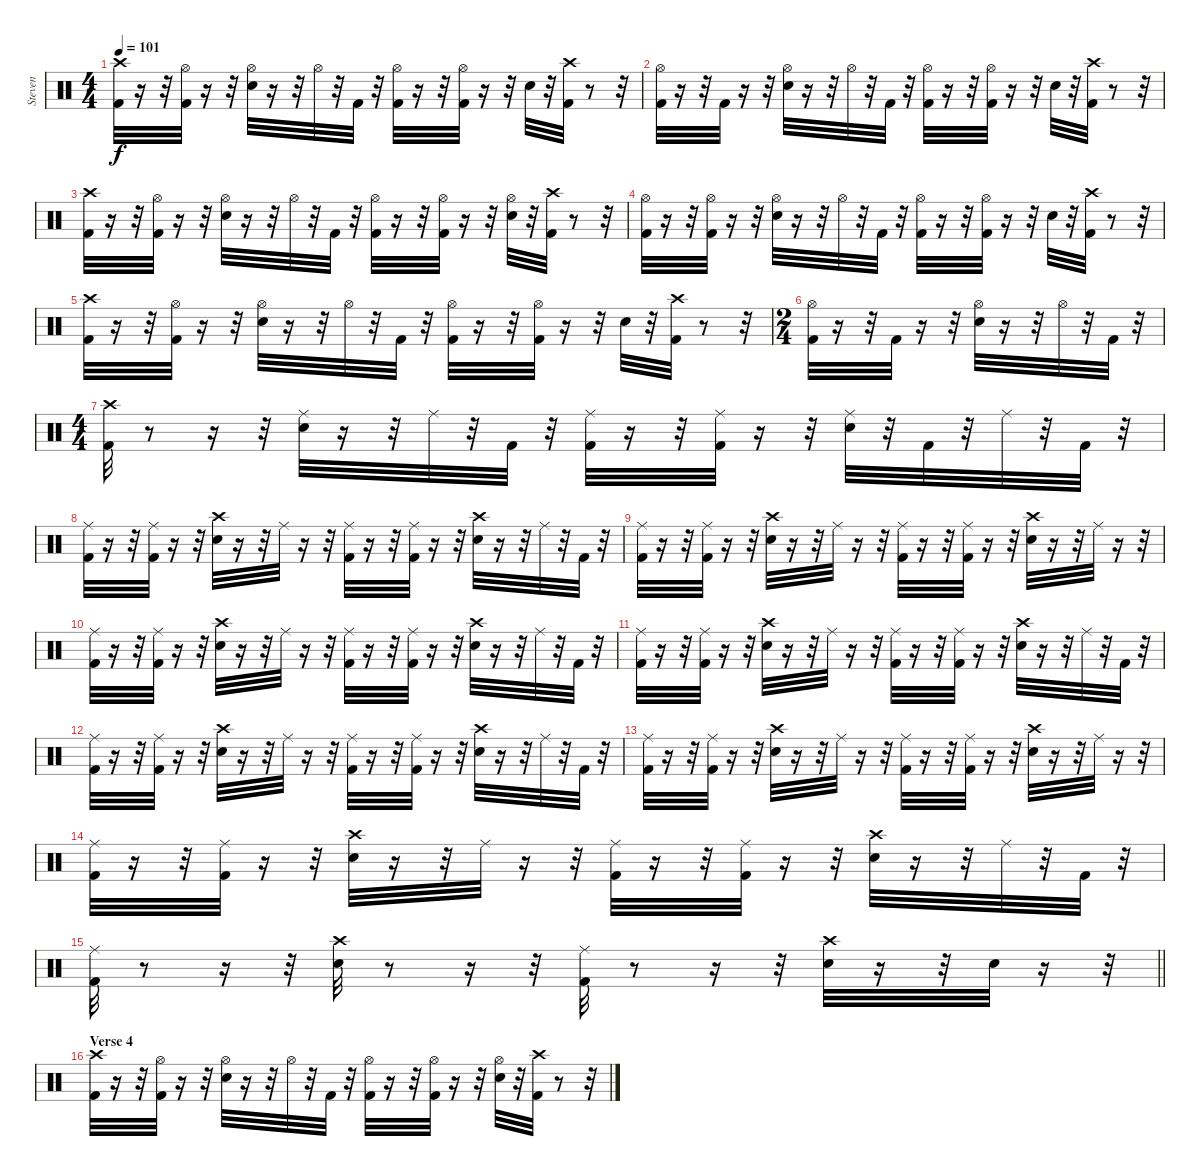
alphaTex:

\track ("Steven" "Steven") {instrument percussion}
\staff {score}
\articulation defaults
\ts (4 4)
\tempo 101
\clef neutral
\ks c
("Crash high (hit)" "Kick (hit) 2").32{dy f} r.16 r.32 ("Kick (hit) 2" "Hi-Hat (open)").32 r.16 r.32 ("Snare (hit) 2" "Hi-Hat (open)").32 r.16 r.32 "Hi-Hat (open)".32 r.32 "Kick (hit) 2".32 r.32 ("Kick (hit) 2" "Hi-Hat (open)").32 r.16 r.32 ("Hi-Hat (open)" "Kick (hit) 2").32 r.16 r.32 "Snare (hit) 2".32 r.32 ("Crash high (hit)" "Kick (hit) 2").32 r.8 r.32 |
("Kick (hit) 2" "Hi-Hat (open)").32 r.16 r.32 "Kick (hit) 2".32 r.16 r.32 ("Snare (hit) 2" "Hi-Hat (open)").32 r.16 r.32 "Hi-Hat (open)".32 r.32 "Kick (hit) 2".32 r.32 ("Hi-Hat (open)" "Kick (hit) 2").32 r.16 r.32 ("Kick (hit) 2" "Hi-Hat (open)").32 r.16 r.32 "Snare (hit) 2".32 r.32 ("Kick (hit) 2" "Crash high (hit)").32 r.8 r.32 |
("Crash high (hit)" "Kick (hit) 2").32 r.16 r.32 ("Hi-Hat (open)" "Kick (hit) 2").32 r.16 r.32 ("Hi-Hat (open)" "Snare (hit) 2").32 r.16 r.32 "Hi-Hat (open)".32 r.32 "Kick (hit) 2".32 r.32 ("Kick (hit) 2" "Hi-Hat (open)").32 r.16 r.32 ("Kick (hit) 2" "Hi-Hat (open)").32 r.16 r.32 ("Hi-Hat (open)" "Snare (hit) 2").32 r.32 ("Kick (hit) 2" "Crash high (hit)").32 r.8 r.32 |
("Hi-Hat (open)" "Kick (hit) 2").32 r.16 r.32 ("Kick (hit) 2" "Hi-Hat (open)").32 r.16 r.32 ("Hi-Hat (open)" "Snare (hit) 2").32 r.16 r.32 "Hi-Hat (open)".32 r.32 "Kick (hit) 2".32 r.32 ("Kick (hit) 2" "Hi-Hat (open)").32 r.16 r.32 ("Kick (hit) 2" "Hi-Hat (open)").32 r.16 r.32 "Snare (hit) 2".32 r.32 ("Kick (hit) 2" "Crash high (hit)").32 r.8 r.32 |
("Crash high (hit)" "Kick (hit) 2").32 r.16 r.32 ("Kick (hit) 2" "Hi-Hat (open)").32 r.16 r.32 ("Snare (hit) 2" "Hi-Hat (open)").32 r.16 r.32 "Hi-Hat (open)".32 r.32 "Kick (hit) 2".32 r.32 ("Kick (hit) 2" "Hi-Hat (open)").32 r.16 r.32 ("Hi-Hat (open)" "Kick (hit) 2").32 r.16 r.32 "Snare (hit) 2".32 r.32 ("Crash high (hit)" "Kick (hit) 2").32 r.8 r.32 |
\ts (2 4)
("Kick (hit) 2" "Hi-Hat (open)").32 r.16 r.32 "Kick (hit) 2".32 r.16 r.32 ("Snare (hit) 2" "Hi-Hat (open)").32 r.16 r.32 "Hi-Hat (open)".32 r.32 "Kick (hit) 2".32 r.32 |
\ts (4 4)
("Crash high (hit)" "Kick (hit) 2").32 r.8 r.16 r.32 ("Ride (middle)" "Snare (hit) 2").32 r.16 r.32 "Ride (middle)".32 r.32 "Kick (hit) 2".32 r.32 ("Kick (hit) 2" "Ride (middle)").32 r.16 r.32 ("Kick (hit) 2" "Ride (middle)").32 r.16 r.32 ("Ride (middle)" "Snare (hit) 2").32 r.32 "Kick (hit) 2".32 r.32 "Ride (middle)".32 r.32 "Kick (hit) 2".32 r.32 |
("Ride (middle)" "Kick (hit) 2").32 r.16 r.32 ("Ride (middle)" "Kick (hit) 2").32 r.16 r.32 ("Crash high (hit)" "Snare (hit) 2").32 r.16 r.32 "Ride (middle)".32 r.16 r.32 ("Ride (middle)" "Kick (hit) 2").32 r.16 r.32 ("Ride (middle)" "Kick (hit) 2").32 r.16 r.32 ("Crash high (hit)" "Snare (hit) 2").32 r.16 r.32 "Ride (middle)".32 r.32 "Kick (hit) 2".32 r.32 |
("Kick (hit) 2" "Ride (middle)").32 r.16 r.32 ("Ride (middle)" "Kick (hit) 2").32 r.16 r.32 ("Snare (hit) 2" "Crash high (hit)").32 r.16 r.32 "Ride (middle)".32 r.16 r.32 ("Ride (middle)" "Kick (hit) 2").32 r.16 r.32 ("Kick (hit) 2" "Ride (middle)").32 r.16 r.32 ("Snare (hit) 2" "Crash high (hit)").32 r.16 r.32 "Ride (middle)".32 r.16 r.32 |
("Kick (hit) 2" "Ride (middle)").32 r.16 r.32 ("Ride (middle)" "Kick (hit) 2").32 r.16 r.32 ("Crash high (hit)" "Snare (hit) 2").32 r.16 r.32 "Ride (middle)".32 r.16 r.32 ("Kick (hit) 2" "Ride (middle)").32 r.16 r.32 ("Ride (middle)" "Kick (hit) 2").32 r.16 r.32 ("Crash high (hit)" "Snare (hit) 2").32 r.16 r.32 "Ride (middle)".32 r.32 "Kick (hit) 2".32 r.32 |
("Kick (hit) 2" "Ride (middle)").32 r.16 r.32 ("Ride (middle)" "Kick (hit) 2").32 r.16 r.32 ("Crash high (hit)" "Snare (hit) 2").32 r.16 r.32 "Ride (middle)".32 r.16 r.32 ("Ride (middle)" "Kick (hit) 2").32 r.16 r.32 ("Kick (hit) 2" "Ride (middle)").32 r.16 r.32 ("Snare (hit) 2" "Crash high (hit)").32 r.16 r.32 "Ride (middle)".32 r.32 "Kick (hit) 2".32 r.32 |
("Ride (middle)" "Kick (hit) 2").32 r.16 r.32 ("Ride (middle)" "Kick (hit) 2").32 r.16 r.32 ("Crash high (hit)" "Snare (hit) 2").32 r.16 r.32 "Ride (middle)".32 r.16 r.32 ("Ride (middle)" "Kick (hit) 2").32 r.16 r.32 ("Ride (middle)" "Kick (hit) 2").32 r.16 r.32 ("Crash high (hit)" "Snare (hit) 2").32 r.16 r.32 "Ride (middle)".32 r.32 "Kick (hit) 2".32 r.32 |
("Kick (hit) 2" "Ride (middle)").32 r.16 r.32 ("Ride (middle)" "Kick (hit) 2").32 r.16 r.32 ("Snare (hit) 2" "Crash high (hit)").32 r.16 r.32 "Ride (middle)".32 r.16 r.32 ("Ride (middle)" "Kick (hit) 2").32 r.16 r.32 ("Kick (hit) 2" "Ride (middle)").32 r.16 r.32 ("Snare (hit) 2" "Crash high (hit)").32 r.16 r.32 "Ride (middle)".32 r.16 r.32 |
("Kick (hit) 2" "Ride (middle)").32 r.16 r.32 ("Ride (middle)" "Kick (hit) 2").32 r.16 r.32 ("Crash high (hit)" "Snare (hit) 2").32 r.16 r.32 "Ride (middle)".32 r.16 r.32 ("Kick (hit) 2" "Ride (middle)").32 r.16 r.32 ("Ride (middle)" "Kick (hit) 2").32 r.16 r.32 ("Crash high (hit)" "Snare (hit) 2").32 r.16 r.32 "Ride (middle)".32 r.32 "Kick (hit) 2".32 r.32 |
\barLineRight lightlight
("Kick (hit) 2" "Ride (middle)").32 r.8 r.16 r.32 ("Crash high (hit)" "Snare (hit) 2").32 r.8 r.16 r.32 ("Kick (hit) 2" "Ride (middle)").32 r.8 r.16 r.32 ("Crash high (hit)" "Snare (hit) 2").32 r.16 r.32 "Snare (hit) 2".32 r.16 r.32 |
\section ("" "Verse 4")
("Crash high (hit)" "Kick (hit) 2").32 r.16 r.32 ("Hi-Hat (open)" "Kick (hit) 2").32 r.16 r.32 ("Hi-Hat (open)" "Snare (hit) 2").32 r.16 r.32 "Hi-Hat (open)".32 r.32 "Kick (hit) 2".32 r.32 ("Kick (hit) 2" "Hi-Hat (open)").32 r.16 r.32 ("Kick (hit) 2" "Hi-Hat (open)").32 r.16 r.32 ("Hi-Hat (open)" "Snare (hit) 2").32 r.32 ("Kick (hit) 2" "Crash high (hit)").32 r.8 r.32
